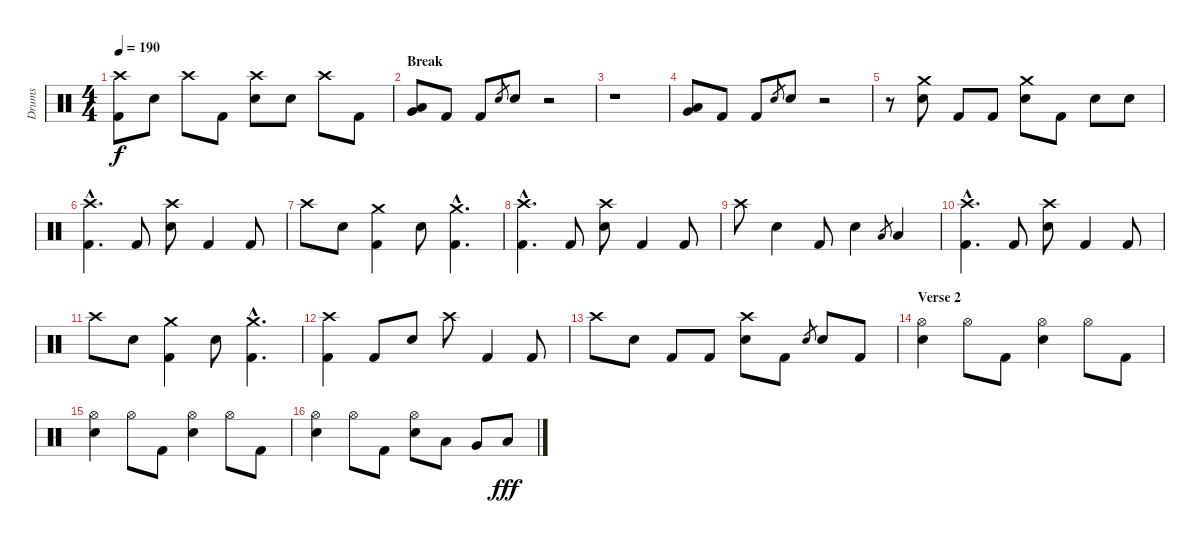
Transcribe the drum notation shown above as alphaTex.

\track ("Drums" "Drums") {instrument percussion}
\staff {score}
\articulation defaults
\ts (4 4)
\tempo 190
\clef neutral
\ks c
("Crash high (hit)" "Kick (hit) 2").8{dy f} "Electric Snare (hit)".8 "Crash high (hit)".8 "Kick (hit) 2".8 ("Crash high (hit)" "Electric Snare (hit)").8 "Electric Snare (hit)".8 "Crash high (hit)".8 "Kick (hit) 2".8 |
\section ("" "Break")
("Low Tom (hit)" "Very Low Tom (hit)").8 "Kick (hit) 2".8 "Kick (hit) 2".8 "Electric Snare (hit)".8{gr} "Electric Snare (hit)".8 r.2 |
r.1 |
("Low Tom (hit)" "Very Low Tom (hit)").8 "Kick (hit) 2".8 "Kick (hit) 2".8 "Electric Snare (hit)".8{gr} "Electric Snare (hit)".8 r.2 |
r.8 ("Crash medium (hit)" "Electric Snare (hit)").8 "Kick (hit) 2".8 "Kick (hit) 2".8 ("Crash medium (hit)" "Electric Snare (hit)").8 "Kick (hit) 2".8 "Electric Snare (hit)".8 "Electric Snare (hit)".8 |
("Crash high (hit)"{hac} "Kick (hit) 2"{hac}).4{d} "Kick (hit) 2".8 ("Crash high (hit)" "Electric Snare (hit)").8 "Kick (hit) 2".4 "Kick (hit) 2".8 |
"Crash high (hit)".8 "Electric Snare (hit)".8 ("Crash medium (hit)" "Kick (hit) 2").4 "Electric Snare (hit)".8 ("Crash medium (hit)"{hac} "Kick (hit) 2"{hac}).4{d} |
("Crash high (hit)"{hac} "Kick (hit) 2"{hac}).4{d} "Kick (hit) 2".8 ("Crash high (hit)" "Electric Snare (hit)").8 "Kick (hit) 2".4 "Kick (hit) 2".8 |
"Crash high (hit)".8 "Electric Snare (hit)".4 "Kick (hit) 2".8 "Electric Snare (hit)".4 "Low Floor Tom (hit)".8{gr} "Low Floor Tom (hit)".4 |
("Crash high (hit)"{hac} "Kick (hit) 2"{hac}).4{d} "Kick (hit) 2".8 ("Crash high (hit)" "Electric Snare (hit)").8 "Kick (hit) 2".4 "Kick (hit) 2".8 |
"Crash high (hit)".8 "Electric Snare (hit)".8 ("Crash medium (hit)" "Kick (hit) 2").4 "Electric Snare (hit)".8 ("Crash medium (hit)"{hac} "Kick (hit) 2"{hac}).4{d} |
("Crash high (hit)" "Kick (hit) 2").4 "Kick (hit) 2".8 "Electric Snare (hit)".8 "Crash high (hit)".8 "Kick (hit) 2".4 "Kick (hit) 2".8 |
"Crash high (hit)".8 "Electric Snare (hit)".8 "Kick (hit) 2".8 "Kick (hit) 2".8 ("Crash high (hit)" "Electric Snare (hit)").8 "Kick (hit) 2".8 "Electric Snare (hit)".8{gr} "Electric Snare (hit)".8 "Kick (hit) 2".8 |
\section ("" "Verse 2")
("Hi-Hat (open)" "Electric Snare (hit)").4 "Hi-Hat (open)".8 "Kick (hit) 2".8 ("Hi-Hat (open)" "Electric Snare (hit)").4 "Hi-Hat (open)".8 "Kick (hit) 2".8 |
("Hi-Hat (open)" "Electric Snare (hit)").4 "Hi-Hat (open)".8 "Kick (hit) 2".8 ("Hi-Hat (open)" "Electric Snare (hit)").4 "Hi-Hat (open)".8 "Kick (hit) 2".8 |
("Hi-Hat (open)" "Electric Snare (hit)").4 "Hi-Hat (open)".8 "Kick (hit) 2".8 ("Hi-Hat (open)" "Electric Snare (hit)").8 "Low Tom (hit)".8 "Very Low Tom (hit)".8 "Low Floor Tom (hit)".8{dy fff}
